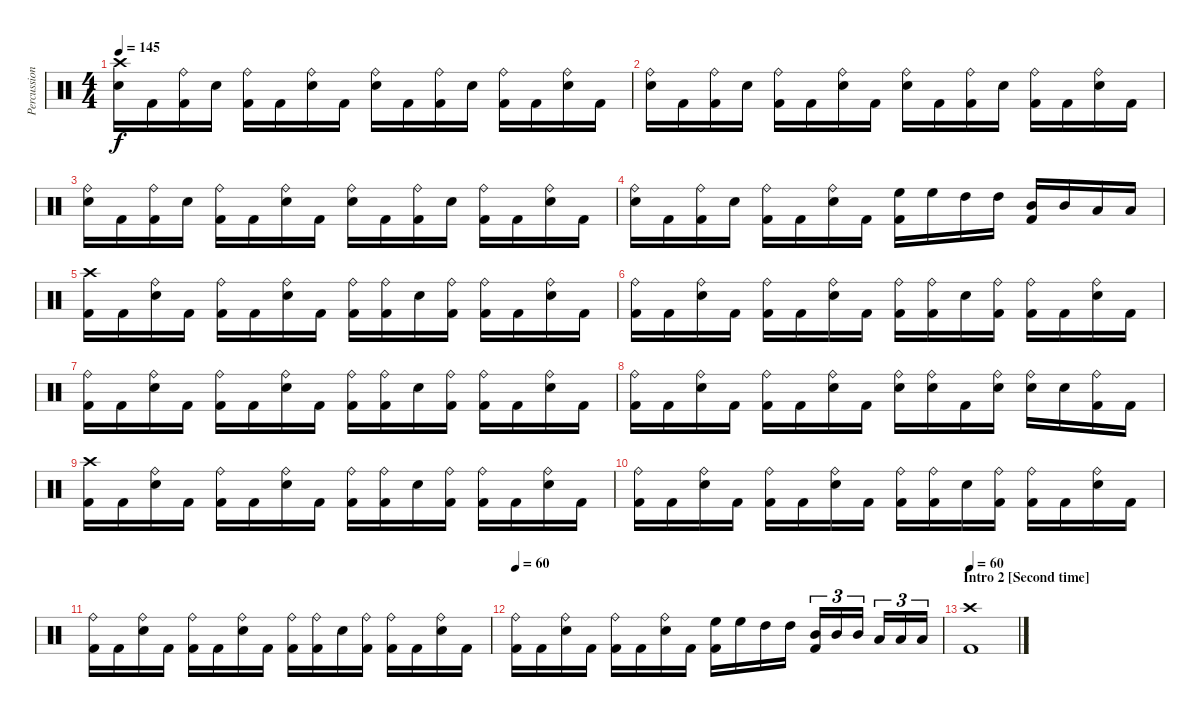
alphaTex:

\track ("Percussion" "Percussion") {instrument percussion}
\staff {score}
\articulation defaults
\ts (4 4)
\tempo 145
\clef neutral
\ks c
("Electric Snare (hit)" "Crash high (hit)").16{dy f} "Kick (hit) 2".16 ("Kick (hit) 2" "Ride (bell)").16 "Electric Snare (hit)".16 ("Kick (hit) 2" "Ride (bell)").16 "Kick (hit) 2".16 ("Electric Snare (hit)" "Ride (bell)").16 "Kick (hit) 2".16 ("Electric Snare (hit)" "Ride (bell)").16 "Kick (hit) 2".16 ("Kick (hit) 2" "Ride (bell)").16 "Electric Snare (hit)".16 ("Kick (hit) 2" "Ride (bell)").16 "Kick (hit) 2".16 ("Electric Snare (hit)" "Ride (bell)").16 "Kick (hit) 2".16 |
("Electric Snare (hit)" "Ride (bell)").16 "Kick (hit) 2".16 ("Kick (hit) 2" "Ride (bell)").16 "Electric Snare (hit)".16 ("Kick (hit) 2" "Ride (bell)").16 "Kick (hit) 2".16 ("Electric Snare (hit)" "Ride (bell)").16 "Kick (hit) 2".16 ("Electric Snare (hit)" "Ride (bell)").16 "Kick (hit) 2".16 ("Kick (hit) 2" "Ride (bell)").16 "Electric Snare (hit)".16 ("Kick (hit) 2" "Ride (bell)").16 "Kick (hit) 2".16 ("Electric Snare (hit)" "Ride (bell)").16 "Kick (hit) 2".16 |
("Electric Snare (hit)" "Ride (bell)").16 "Kick (hit) 2".16 ("Kick (hit) 2" "Ride (bell)").16 "Electric Snare (hit)".16 ("Kick (hit) 2" "Ride (bell)").16 "Kick (hit) 2".16 ("Electric Snare (hit)" "Ride (bell)").16 "Kick (hit) 2".16 ("Electric Snare (hit)" "Ride (bell)").16 "Kick (hit) 2".16 ("Kick (hit) 2" "Ride (bell)").16 "Electric Snare (hit)".16 ("Kick (hit) 2" "Ride (bell)").16 "Kick (hit) 2".16 ("Electric Snare (hit)" "Ride (bell)").16 "Kick (hit) 2".16 |
("Electric Snare (hit)" "Ride (bell)").16 "Kick (hit) 2".16 ("Kick (hit) 2" "Ride (bell)").16 "Electric Snare (hit)".16 ("Kick (hit) 2" "Ride (bell)").16 "Kick (hit) 2".16 ("Electric Snare (hit)" "Ride (bell)").16 "Kick (hit) 2".16 ("High Floor Tom (hit)" "Kick (hit) 2").16 "High Floor Tom (hit)".16 "High Tom (hit)".16 "High Tom (hit)".16 ("Mid Tom (hit)" "Kick (hit) 2").16 "Mid Tom (hit)".16 "Low Tom (hit)".16 "Low Tom (hit)".16 |
("Kick (hit) 2" "Crash high (hit)").16 "Kick (hit) 2".16 ("Electric Snare (hit)" "Ride (bell)").16 "Kick (hit) 2".16 ("Kick (hit) 2" "Ride (bell)").16 "Kick (hit) 2".16 ("Electric Snare (hit)" "Ride (bell)").16 "Kick (hit) 2".16 ("Kick (hit) 2" "Ride (bell)").16 ("Kick (hit) 2" "Ride (bell)").16 "Electric Snare (hit)".16 ("Kick (hit) 2" "Ride (bell)").16 ("Kick (hit) 2" "Ride (bell)").16 "Kick (hit) 2".16 ("Electric Snare (hit)" "Ride (bell)").16 "Kick (hit) 2".16 |
("Kick (hit) 2" "Ride (bell)").16 "Kick (hit) 2".16 ("Electric Snare (hit)" "Ride (bell)").16 "Kick (hit) 2".16 ("Kick (hit) 2" "Ride (bell)").16 "Kick (hit) 2".16 ("Electric Snare (hit)" "Ride (bell)").16 "Kick (hit) 2".16 ("Kick (hit) 2" "Ride (bell)").16 ("Kick (hit) 2" "Ride (bell)").16 "Electric Snare (hit)".16 ("Kick (hit) 2" "Ride (bell)").16 ("Kick (hit) 2" "Ride (bell)").16 "Kick (hit) 2".16 ("Electric Snare (hit)" "Ride (bell)").16 "Kick (hit) 2".16 |
("Kick (hit) 2" "Ride (bell)").16 "Kick (hit) 2".16 ("Electric Snare (hit)" "Ride (bell)").16 "Kick (hit) 2".16 ("Kick (hit) 2" "Ride (bell)").16 "Kick (hit) 2".16 ("Electric Snare (hit)" "Ride (bell)").16 "Kick (hit) 2".16 ("Kick (hit) 2" "Ride (bell)").16 ("Kick (hit) 2" "Ride (bell)").16 "Electric Snare (hit)".16 ("Kick (hit) 2" "Ride (bell)").16 ("Kick (hit) 2" "Ride (bell)").16 "Kick (hit) 2".16 ("Electric Snare (hit)" "Ride (bell)").16 "Kick (hit) 2".16 |
("Kick (hit) 2" "Ride (bell)").16 "Kick (hit) 2".16 ("Electric Snare (hit)" "Ride (bell)").16 "Kick (hit) 2".16 ("Kick (hit) 2" "Ride (bell)").16 "Kick (hit) 2".16 ("Electric Snare (hit)" "Ride (bell)").16 "Kick (hit) 2".16 ("Electric Snare (hit)" "Ride (bell)").16 ("Electric Snare (hit)" "Ride (bell)").16 "Kick (hit) 2".16 ("Electric Snare (hit)" "Ride (bell)").16 ("Electric Snare (hit)" "Ride (bell)").16 "Electric Snare (hit)".16 ("Kick (hit) 2" "Ride (bell)").16 "Kick (hit) 2".16 |
("Kick (hit) 2" "Crash high (hit)").16 "Kick (hit) 2".16 ("Electric Snare (hit)" "Ride (bell)").16 "Kick (hit) 2".16 ("Kick (hit) 2" "Ride (bell)").16 "Kick (hit) 2".16 ("Electric Snare (hit)" "Ride (bell)").16 "Kick (hit) 2".16 ("Kick (hit) 2" "Ride (bell)").16 ("Kick (hit) 2" "Ride (bell)").16 "Electric Snare (hit)".16 ("Kick (hit) 2" "Ride (bell)").16 ("Kick (hit) 2" "Ride (bell)").16 "Kick (hit) 2".16 ("Electric Snare (hit)" "Ride (bell)").16 "Kick (hit) 2".16 |
("Kick (hit) 2" "Ride (bell)").16 "Kick (hit) 2".16 ("Electric Snare (hit)" "Ride (bell)").16 "Kick (hit) 2".16 ("Kick (hit) 2" "Ride (bell)").16 "Kick (hit) 2".16 ("Electric Snare (hit)" "Ride (bell)").16 "Kick (hit) 2".16 ("Kick (hit) 2" "Ride (bell)").16 ("Kick (hit) 2" "Ride (bell)").16 "Electric Snare (hit)".16 ("Kick (hit) 2" "Ride (bell)").16 ("Kick (hit) 2" "Ride (bell)").16 "Kick (hit) 2".16 ("Electric Snare (hit)" "Ride (bell)").16 "Kick (hit) 2".16 |
("Kick (hit) 2" "Ride (bell)").16 "Kick (hit) 2".16 ("Electric Snare (hit)" "Ride (bell)").16 "Kick (hit) 2".16 ("Kick (hit) 2" "Ride (bell)").16 "Kick (hit) 2".16 ("Electric Snare (hit)" "Ride (bell)").16 "Kick (hit) 2".16 ("Kick (hit) 2" "Ride (bell)").16 ("Kick (hit) 2" "Ride (bell)").16 "Electric Snare (hit)".16 ("Kick (hit) 2" "Ride (bell)").16 ("Kick (hit) 2" "Ride (bell)").16 "Kick (hit) 2".16 ("Electric Snare (hit)" "Ride (bell)").16 "Kick (hit) 2".16 |
\tempo 60
("Kick (hit) 2" "Ride (bell)").16 "Kick (hit) 2".16 ("Electric Snare (hit)" "Ride (bell)").16 "Kick (hit) 2".16 ("Kick (hit) 2" "Ride (bell)").16 "Kick (hit) 2".16 ("Electric Snare (hit)" "Ride (bell)").16 "Kick (hit) 2".16 ("High Floor Tom (hit)" "Kick (hit) 2").16 "High Floor Tom (hit)".16 "High Tom (hit)".16 "High Tom (hit)".16 ("Mid Tom (hit)" "Kick (hit) 2").16{tu (3 2)} "Mid Tom (hit)".16{tu (3 2)} "Mid Tom (hit)".16{tu (3 2)} "Low Tom (hit)".16{tu (3 2)} "Low Tom (hit)".16{tu (3 2)} "Low Tom (hit)".16{tu (3 2)} |
\section ("" "Intro 2 [Second time]")
\tempo 60
("Kick (hit) 2" "Crash high (hit)").1
